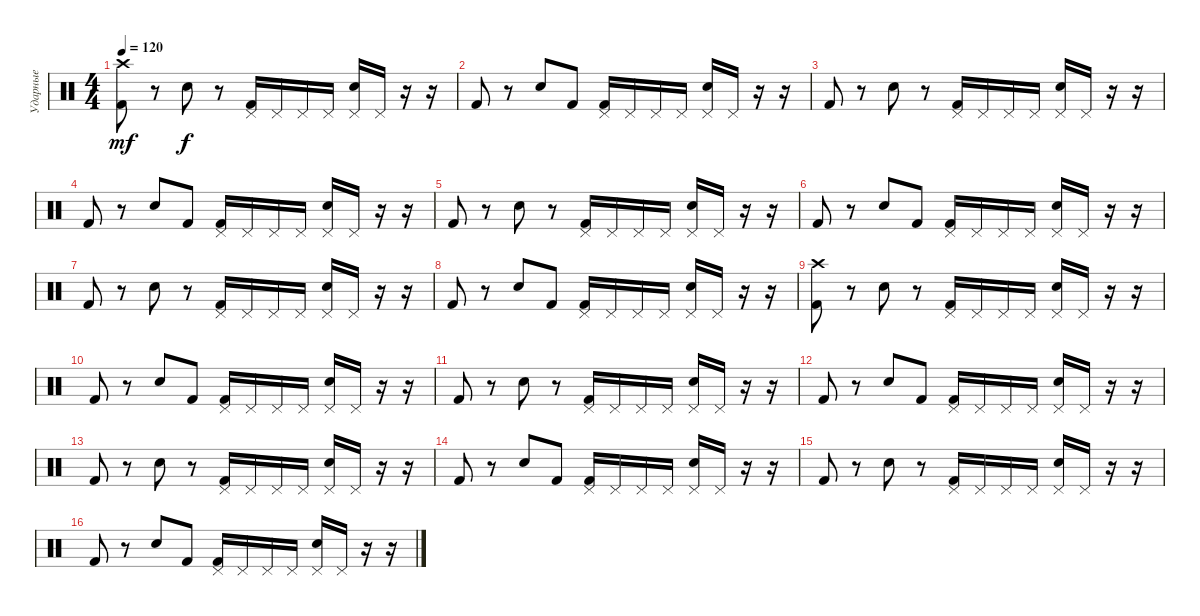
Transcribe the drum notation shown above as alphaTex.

\track ("Ударные" "Ударные") {instrument percussion}
\staff {score}
\articulation defaults
\ts (4 4)
\tempo 120
\clef neutral
\ks c
("Crash high (hit)" "Kick (hit) 2").8{dy mf} r.8 "Electric Snare (hit)".8{dy f} r.8 ("Pedal Hi-Hat (hit)" "Kick (hit) 2").16 "Pedal Hi-Hat (hit)".16 "Pedal Hi-Hat (hit)".16 "Pedal Hi-Hat (hit)".16 ("Pedal Hi-Hat (hit)" "Electric Snare (hit)").16 "Pedal Hi-Hat (hit)".16 r.16 r.16 |
"Kick (hit) 2".8 r.8 "Electric Snare (hit)".8 "Kick (hit) 2".8 ("Pedal Hi-Hat (hit)" "Kick (hit) 2").16 "Pedal Hi-Hat (hit)".16 "Pedal Hi-Hat (hit)".16 "Pedal Hi-Hat (hit)".16 ("Pedal Hi-Hat (hit)" "Electric Snare (hit)").16 "Pedal Hi-Hat (hit)".16 r.16 r.16 |
"Kick (hit) 2".8 r.8 "Electric Snare (hit)".8 r.8 ("Pedal Hi-Hat (hit)" "Kick (hit) 2").16 "Pedal Hi-Hat (hit)".16 "Pedal Hi-Hat (hit)".16 "Pedal Hi-Hat (hit)".16 ("Pedal Hi-Hat (hit)" "Electric Snare (hit)").16 "Pedal Hi-Hat (hit)".16 r.16 r.16 |
"Kick (hit) 2".8 r.8 "Electric Snare (hit)".8 "Kick (hit) 2".8 ("Pedal Hi-Hat (hit)" "Kick (hit) 2").16 "Pedal Hi-Hat (hit)".16 "Pedal Hi-Hat (hit)".16 "Pedal Hi-Hat (hit)".16 ("Pedal Hi-Hat (hit)" "Electric Snare (hit)").16 "Pedal Hi-Hat (hit)".16 r.16 r.16 |
"Kick (hit) 2".8 r.8 "Electric Snare (hit)".8 r.8 ("Pedal Hi-Hat (hit)" "Kick (hit) 2").16 "Pedal Hi-Hat (hit)".16 "Pedal Hi-Hat (hit)".16 "Pedal Hi-Hat (hit)".16 ("Pedal Hi-Hat (hit)" "Electric Snare (hit)").16 "Pedal Hi-Hat (hit)".16 r.16 r.16 |
"Kick (hit) 2".8 r.8 "Electric Snare (hit)".8 "Kick (hit) 2".8 ("Pedal Hi-Hat (hit)" "Kick (hit) 2").16 "Pedal Hi-Hat (hit)".16 "Pedal Hi-Hat (hit)".16 "Pedal Hi-Hat (hit)".16 ("Pedal Hi-Hat (hit)" "Electric Snare (hit)").16 "Pedal Hi-Hat (hit)".16 r.16 r.16 |
"Kick (hit) 2".8 r.8 "Electric Snare (hit)".8 r.8 ("Pedal Hi-Hat (hit)" "Kick (hit) 2").16 "Pedal Hi-Hat (hit)".16 "Pedal Hi-Hat (hit)".16 "Pedal Hi-Hat (hit)".16 ("Pedal Hi-Hat (hit)" "Electric Snare (hit)").16 "Pedal Hi-Hat (hit)".16 r.16 r.16 |
"Kick (hit) 2".8 r.8 "Electric Snare (hit)".8 "Kick (hit) 2".8 ("Pedal Hi-Hat (hit)" "Kick (hit) 2").16 "Pedal Hi-Hat (hit)".16 "Pedal Hi-Hat (hit)".16 "Pedal Hi-Hat (hit)".16 ("Pedal Hi-Hat (hit)" "Electric Snare (hit)").16 "Pedal Hi-Hat (hit)".16 r.16 r.16 |
("Crash high (hit)" "Kick (hit) 2").8 r.8 "Electric Snare (hit)".8 r.8 ("Pedal Hi-Hat (hit)" "Kick (hit) 2").16 "Pedal Hi-Hat (hit)".16 "Pedal Hi-Hat (hit)".16 "Pedal Hi-Hat (hit)".16 ("Pedal Hi-Hat (hit)" "Electric Snare (hit)").16 "Pedal Hi-Hat (hit)".16 r.16 r.16 |
"Kick (hit) 2".8 r.8 "Electric Snare (hit)".8 "Kick (hit) 2".8 ("Pedal Hi-Hat (hit)" "Kick (hit) 2").16 "Pedal Hi-Hat (hit)".16 "Pedal Hi-Hat (hit)".16 "Pedal Hi-Hat (hit)".16 ("Pedal Hi-Hat (hit)" "Electric Snare (hit)").16 "Pedal Hi-Hat (hit)".16 r.16 r.16 |
"Kick (hit) 2".8 r.8 "Electric Snare (hit)".8 r.8 ("Pedal Hi-Hat (hit)" "Kick (hit) 2").16 "Pedal Hi-Hat (hit)".16 "Pedal Hi-Hat (hit)".16 "Pedal Hi-Hat (hit)".16 ("Pedal Hi-Hat (hit)" "Electric Snare (hit)").16 "Pedal Hi-Hat (hit)".16 r.16 r.16 |
"Kick (hit) 2".8 r.8 "Electric Snare (hit)".8 "Kick (hit) 2".8 ("Pedal Hi-Hat (hit)" "Kick (hit) 2").16 "Pedal Hi-Hat (hit)".16 "Pedal Hi-Hat (hit)".16 "Pedal Hi-Hat (hit)".16 ("Pedal Hi-Hat (hit)" "Electric Snare (hit)").16 "Pedal Hi-Hat (hit)".16 r.16 r.16 |
"Kick (hit) 2".8 r.8 "Electric Snare (hit)".8 r.8 ("Pedal Hi-Hat (hit)" "Kick (hit) 2").16 "Pedal Hi-Hat (hit)".16 "Pedal Hi-Hat (hit)".16 "Pedal Hi-Hat (hit)".16 ("Pedal Hi-Hat (hit)" "Electric Snare (hit)").16 "Pedal Hi-Hat (hit)".16 r.16 r.16 |
"Kick (hit) 2".8 r.8 "Electric Snare (hit)".8 "Kick (hit) 2".8 ("Pedal Hi-Hat (hit)" "Kick (hit) 2").16 "Pedal Hi-Hat (hit)".16 "Pedal Hi-Hat (hit)".16 "Pedal Hi-Hat (hit)".16 ("Pedal Hi-Hat (hit)" "Electric Snare (hit)").16 "Pedal Hi-Hat (hit)".16 r.16 r.16 |
"Kick (hit) 2".8 r.8 "Electric Snare (hit)".8 r.8 ("Pedal Hi-Hat (hit)" "Kick (hit) 2").16 "Pedal Hi-Hat (hit)".16 "Pedal Hi-Hat (hit)".16 "Pedal Hi-Hat (hit)".16 ("Pedal Hi-Hat (hit)" "Electric Snare (hit)").16 "Pedal Hi-Hat (hit)".16 r.16 r.16 |
"Kick (hit) 2".8 r.8 "Electric Snare (hit)".8 "Kick (hit) 2".8 ("Pedal Hi-Hat (hit)" "Kick (hit) 2").16 "Pedal Hi-Hat (hit)".16 "Pedal Hi-Hat (hit)".16 "Pedal Hi-Hat (hit)".16 ("Pedal Hi-Hat (hit)" "Electric Snare (hit)").16 "Pedal Hi-Hat (hit)".16 r.16 r.16
